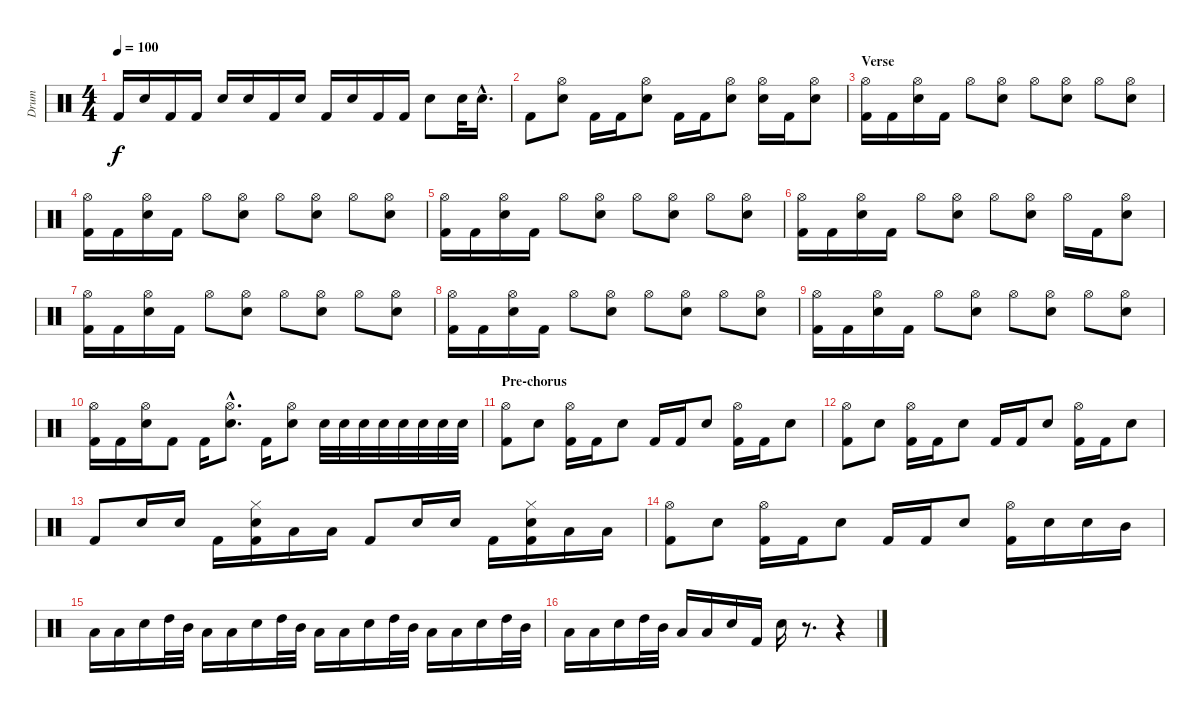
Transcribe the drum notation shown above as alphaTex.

\track ("Drum" "Drum") {instrument percussion}
\staff {score}
\articulation defaults
\ts (4 4)
\tempo 100
\clef neutral
\ks c "Kick (hit) 2".16{dy f} "Electric Snare (hit)".16 "Kick (hit) 2".16 "Kick (hit) 2".16 "Electric Snare (hit)".16 "Electric Snare (hit)".16 "Kick (hit) 2".16 "Electric Snare (hit)".16 "Kick (hit) 2".16 "Electric Snare (hit)".16 "Kick (hit) 2".16 "Kick (hit) 2".16 "Electric Snare (hit)".8 "Electric Snare (hit)".32 "Electric Snare (hit)"{hac}.16{d}
|
"Kick (hit) 2".8 ("Hi-Hat (open)" "Electric Snare (hit)").8 "Kick (hit) 2".16 "Kick (hit) 2".16 ("Hi-Hat (open)" "Electric Snare (hit)").8 "Kick (hit) 2".16 "Kick (hit) 2".16 ("Hi-Hat (open)" "Electric Snare (hit)").8 ("Hi-Hat (open)" "Electric Snare (hit)").16 "Kick (hit) 2".16 ("Hi-Hat (open)" "Electric Snare (hit)").8 |
\section ("" "Verse")
("Hi-Hat (open)" "Kick (hit) 2").16 "Kick (hit) 2".16 ("Hi-Hat (open)" "Electric Snare (hit)").16 "Kick (hit) 2".16 "Hi-Hat (open)".8 ("Hi-Hat (open)" "Electric Snare (hit)").8 "Hi-Hat (open)".8 ("Hi-Hat (open)" "Electric Snare (hit)").8 "Hi-Hat (open)".8 ("Hi-Hat (open)" "Electric Snare (hit)").8 |
("Hi-Hat (open)" "Kick (hit) 2").16 "Kick (hit) 2".16 ("Hi-Hat (open)" "Electric Snare (hit)").16 "Kick (hit) 2".16 "Hi-Hat (open)".8 ("Hi-Hat (open)" "Electric Snare (hit)").8 "Hi-Hat (open)".8 ("Hi-Hat (open)" "Electric Snare (hit)").8 "Hi-Hat (open)".8 ("Hi-Hat (open)" "Electric Snare (hit)").8 |
("Hi-Hat (open)" "Kick (hit) 2").16 "Kick (hit) 2".16 ("Hi-Hat (open)" "Electric Snare (hit)").16 "Kick (hit) 2".16 "Hi-Hat (open)".8 ("Hi-Hat (open)" "Electric Snare (hit)").8 "Hi-Hat (open)".8 ("Hi-Hat (open)" "Electric Snare (hit)").8 "Hi-Hat (open)".8 ("Hi-Hat (open)" "Electric Snare (hit)").8 |
("Hi-Hat (open)" "Kick (hit) 2").16 "Kick (hit) 2".16 ("Hi-Hat (open)" "Electric Snare (hit)").16 "Kick (hit) 2".16 "Hi-Hat (open)".8 ("Hi-Hat (open)" "Electric Snare (hit)").8 "Hi-Hat (open)".8 ("Hi-Hat (open)" "Electric Snare (hit)").8 "Hi-Hat (open)".16 "Kick (hit) 2".16 ("Hi-Hat (open)" "Electric Snare (hit)").8 |
("Hi-Hat (open)" "Kick (hit) 2").16 "Kick (hit) 2".16 ("Hi-Hat (open)" "Electric Snare (hit)").16 "Kick (hit) 2".16 "Hi-Hat (open)".8 ("Hi-Hat (open)" "Electric Snare (hit)").8 "Hi-Hat (open)".8 ("Hi-Hat (open)" "Electric Snare (hit)").8 "Hi-Hat (open)".8 ("Hi-Hat (open)" "Electric Snare (hit)").8 |
("Hi-Hat (open)" "Kick (hit) 2").16 "Kick (hit) 2".16 ("Hi-Hat (open)" "Electric Snare (hit)").16 "Kick (hit) 2".16 "Hi-Hat (open)".8 ("Hi-Hat (open)" "Electric Snare (hit)").8 "Hi-Hat (open)".8 ("Hi-Hat (open)" "Electric Snare (hit)").8 "Hi-Hat (open)".8 ("Hi-Hat (open)" "Electric Snare (hit)").8 |
("Hi-Hat (open)" "Kick (hit) 2").16 "Kick (hit) 2".16 ("Hi-Hat (open)" "Electric Snare (hit)").16 "Kick (hit) 2".16 "Hi-Hat (open)".8 ("Hi-Hat (open)" "Electric Snare (hit)").8 "Hi-Hat (open)".8 ("Hi-Hat (open)" "Electric Snare (hit)").8 "Hi-Hat (open)".8 ("Hi-Hat (open)" "Electric Snare (hit)").8 |
("Hi-Hat (open)" "Kick (hit) 2").16 "Kick (hit) 2".16 ("Hi-Hat (open)" "Electric Snare (hit)").16 "Kick (hit) 2".8 "Kick (hit) 2".16 ("Hi-Hat (open)"{hac} "Electric Snare (hit)"{hac}).8{d} "Kick (hit) 2".16 ("Hi-Hat (open)" "Electric Snare (hit)").8 "Electric Snare (hit)".32 "Electric Snare (hit)".32 "Electric Snare (hit)".32 "Electric Snare (hit)".32 "Electric Snare (hit)".32 "Electric Snare (hit)".32 "Electric Snare (hit)".32 "Electric Snare (hit)".32 |
\section ("" "Pre-chorus")
("Hi-Hat (open)" "Kick (hit) 2").8 "Electric Snare (hit)".8 ("Hi-Hat (open)" "Kick (hit) 2").16 "Kick (hit) 2".16 "Electric Snare (hit)".8 "Kick (hit) 2".16 "Kick (hit) 2".16 "Electric Snare (hit)".8 ("Hi-Hat (open)" "Kick (hit) 2").16 "Kick (hit) 2".16 "Electric Snare (hit)".8 |
("Hi-Hat (open)" "Kick (hit) 2").8 "Electric Snare (hit)".8 ("Hi-Hat (open)" "Kick (hit) 2").16 "Kick (hit) 2".16 "Electric Snare (hit)".8 "Kick (hit) 2".16 "Kick (hit) 2".16 "Electric Snare (hit)".8 ("Hi-Hat (open)" "Kick (hit) 2").16 "Kick (hit) 2".16 "Electric Snare (hit)".8 |
"Kick (hit) 2".8 "Electric Snare (hit)".16 "Electric Snare (hit)".16 "Kick (hit) 2".16 ("Hi-Hat (closed)" "Electric Snare (hit)" "Kick (hit) 2").16 "Low Tom (hit)".16 "Low Tom (hit)".16 "Kick (hit) 2".8 "Electric Snare (hit)".16 "Electric Snare (hit)".16 "Kick (hit) 2".16 ("Hi-Hat (closed)" "Electric Snare (hit)" "Kick (hit) 2").16 "Low Tom (hit)".16 "Low Tom (hit)".16 |
("Hi-Hat (open)" "Kick (hit) 2").8 "Electric Snare (hit)".8 ("Hi-Hat (open)" "Kick (hit) 2").16 "Kick (hit) 2".16 "Electric Snare (hit)".8 "Kick (hit) 2".16 "Kick (hit) 2".16 "Electric Snare (hit)".8 ("Hi-Hat (open)" "Kick (hit) 2").16 "Electric Snare (hit)".16 "Electric Snare (hit)".16 "Mid Tom (hit)".16 |
"Low Tom (hit)".16 "Low Tom (hit)".16 "Electric Snare (hit)".16 "High Tom (hit)".32 "Mid Tom (hit)".32 "Low Tom (hit)".16 "Low Tom (hit)".16 "Electric Snare (hit)".16 "High Tom (hit)".32 "Mid Tom (hit)".32 "Low Tom (hit)".16 "Low Tom (hit)".16 "Electric Snare (hit)".16 "High Tom (hit)".32 "Mid Tom (hit)".32 "Low Tom (hit)".16 "Low Tom (hit)".16 "Electric Snare (hit)".16 "High Tom (hit)".32 "Mid Tom (hit)".32 |
"Low Tom (hit)".16 "Low Tom (hit)".16 "Electric Snare (hit)".16 "High Tom (hit)".32 "Mid Tom (hit)".32 "Low Tom (hit)".16 "Low Tom (hit)".16 "Electric Snare (hit)".16 "Kick (hit) 2".16 "Electric Snare (hit)".16 r.8{d} r.4
